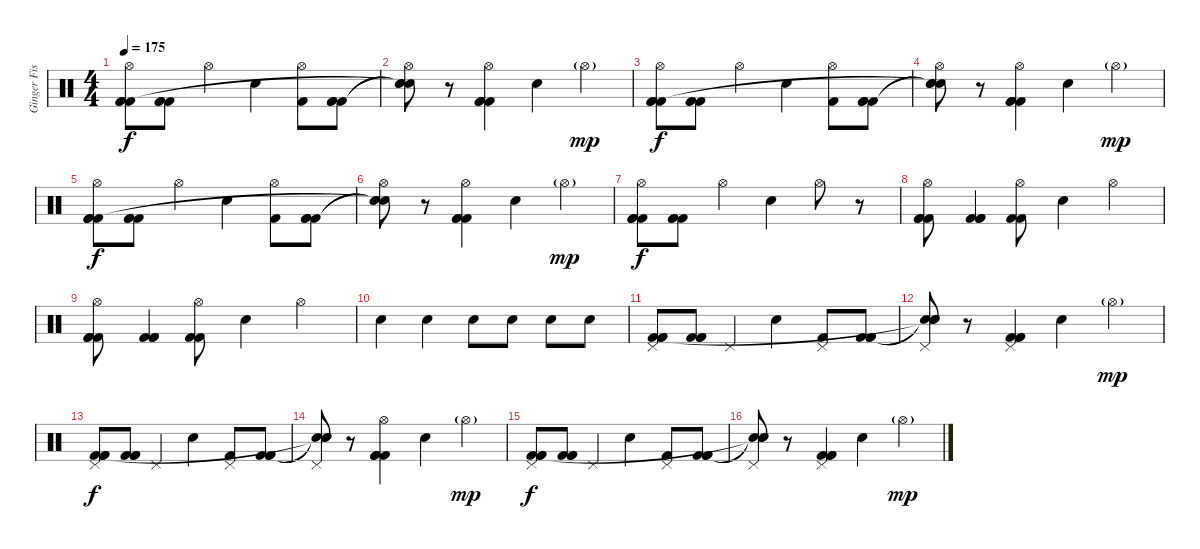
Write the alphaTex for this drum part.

\track ("Ginger Fish" "Ginger Fis") {instrument percussion}
\staff {score}
\articulation defaults
\ts (4 4)
\tempo 175
\clef neutral
\ks c
("Hi-Hat (open)" "Kick (hit) 2" "Kick (hit) 2" "Kick (hit) 2").8{dy f} ("Kick (hit) 2" "Kick (hit) 2" "Kick (hit) 2").8 "Hi-Hat (open)".4 "Snare (hit) 2".4 ("Hi-Hat (open)" "Kick (hit) 2").8 ("Kick (hit) 2" "Kick (hit) 2" "Kick (hit) 2").8 |
("Hi-Hat (open)" "Snare (hit)"{t} "Snare (hit)"{t} "Snare (hit)"{t}).8 r.8 ("Hi-Hat (open)" "Kick (hit) 2" "Kick (hit) 2" "Kick (hit) 2").4 "Snare (hit) 2".4 "Hi-Hat (open)"{g}.4{dy mp} |
("Hi-Hat (open)" "Kick (hit) 2" "Kick (hit) 2" "Kick (hit) 2").8{dy f} ("Kick (hit) 2" "Kick (hit) 2" "Kick (hit) 2").8 "Hi-Hat (open)".4 "Snare (hit) 2".4 ("Hi-Hat (open)" "Kick (hit) 2").8 ("Kick (hit) 2" "Kick (hit) 2" "Kick (hit) 2").8 |
("Hi-Hat (open)" "Snare (hit)"{t} "Snare (hit)"{t} "Snare (hit)"{t}).8 r.8 ("Hi-Hat (open)" "Kick (hit) 2" "Kick (hit) 2" "Kick (hit) 2").4 "Snare (hit) 2".4 "Hi-Hat (open)"{g}.4{dy mp} |
("Hi-Hat (open)" "Kick (hit) 2" "Kick (hit) 2" "Kick (hit) 2").8{dy f} ("Kick (hit) 2" "Kick (hit) 2" "Kick (hit) 2").8 "Hi-Hat (open)".4 "Snare (hit) 2".4 ("Hi-Hat (open)" "Kick (hit) 2").8 ("Kick (hit) 2" "Kick (hit) 2" "Kick (hit) 2").8 |
("Hi-Hat (open)" "Snare (hit)"{t} "Snare (hit)"{t} "Snare (hit)"{t}).8 r.8 ("Hi-Hat (open)" "Kick (hit) 2" "Kick (hit) 2" "Kick (hit) 2").4 "Snare (hit) 2".4 "Hi-Hat (open)"{g}.4{dy mp} |
("Hi-Hat (open)" "Kick (hit) 2" "Kick (hit) 2" "Kick (hit) 2").8{dy f} ("Kick (hit) 2" "Kick (hit) 2" "Kick (hit) 2").8 "Hi-Hat (open)".4 "Snare (hit) 2".4 "Hi-Hat (open)".8 r.8 |
("Hi-Hat (open)" "Kick (hit) 2" "Kick (hit) 2" "Kick (hit) 2").8 ("Kick (hit) 2" "Kick (hit) 2" "Kick (hit) 2").4 ("Hi-Hat (open)" "Kick (hit) 2" "Kick (hit) 2").8 "Snare (hit) 2".4 "Hi-Hat (open)".4 |
("Hi-Hat (open)" "Kick (hit) 2" "Kick (hit) 2" "Kick (hit) 2").8 ("Kick (hit) 2" "Kick (hit) 2" "Kick (hit) 2").4 ("Hi-Hat (open)" "Kick (hit) 2" "Kick (hit) 2").8 "Snare (hit) 2".4 "Hi-Hat (open)".4 |
"Snare (hit) 2".4 "Snare (hit) 2".4 "Snare (hit) 2".8 "Snare (hit) 2".8 "Snare (hit) 2".8 "Snare (hit) 2".8 |
("Pedal Hi-Hat (hit)" "Kick (hit) 2" "Kick (hit) 2" "Kick (hit) 2").8 ("Kick (hit) 2" "Kick (hit) 2" "Kick (hit) 2").8 "Pedal Hi-Hat (hit)".4 "Snare (hit) 2".4 ("Pedal Hi-Hat (hit)" "Kick (hit) 2").8 ("Kick (hit) 2" "Kick (hit) 2" "Kick (hit) 2").8 |
("Pedal Hi-Hat (hit)" "Snare (hit)"{t} "Snare (hit)"{t} "Snare (hit)"{t}).8 r.8 ("Pedal Hi-Hat (hit)" "Kick (hit) 2" "Kick (hit) 2" "Kick (hit) 2").4 "Snare (hit) 2".4 "Hi-Hat (open)"{g}.4{dy mp} |
("Pedal Hi-Hat (hit)" "Kick (hit) 2" "Kick (hit) 2" "Kick (hit) 2").8{dy f} ("Kick (hit) 2" "Kick (hit) 2" "Kick (hit) 2").8 "Pedal Hi-Hat (hit)".4 "Snare (hit) 2".4 ("Pedal Hi-Hat (hit)" "Kick (hit) 2").8 ("Kick (hit) 2" "Kick (hit) 2" "Kick (hit) 2").8 |
("Pedal Hi-Hat (hit)" "Snare (hit)"{t} "Snare (hit)"{t} "Snare (hit)"{t}).8 r.8 ("Hi-Hat (open)" "Kick (hit) 2" "Kick (hit) 2" "Kick (hit) 2").4 "Snare (hit) 2".4 "Hi-Hat (open)"{g}.4{dy mp} |
("Pedal Hi-Hat (hit)" "Kick (hit) 2" "Kick (hit) 2" "Kick (hit) 2").8{dy f} ("Kick (hit) 2" "Kick (hit) 2" "Kick (hit) 2").8 "Pedal Hi-Hat (hit)".4 "Snare (hit) 2".4 ("Pedal Hi-Hat (hit)" "Kick (hit) 2").8 ("Kick (hit) 2" "Kick (hit) 2" "Kick (hit) 2").8 |
("Pedal Hi-Hat (hit)" "Snare (hit)"{t} "Snare (hit)"{t} "Snare (hit)"{t}).8 r.8 ("Pedal Hi-Hat (hit)" "Kick (hit) 2" "Kick (hit) 2" "Kick (hit) 2").4 "Snare (hit) 2".4 "Hi-Hat (open)"{g}.4{dy mp}
